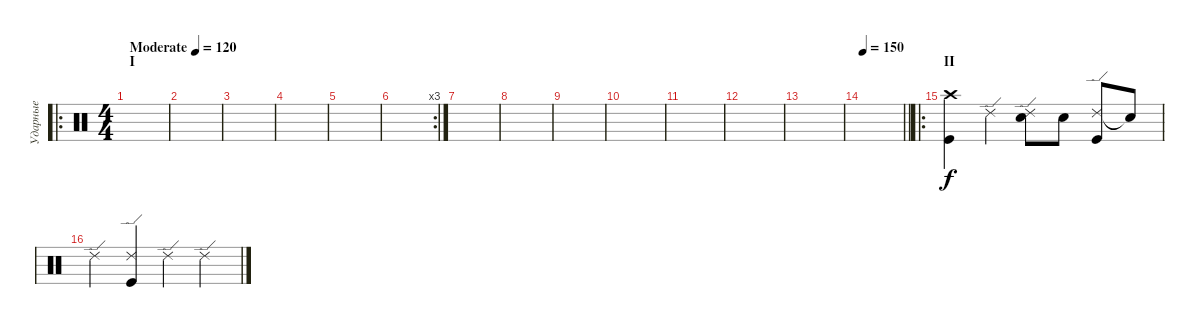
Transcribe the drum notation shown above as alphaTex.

\track ("Ударные" "Ударные") {instrument percussion}
\staff {score}
\articulation defaults
\ro
\ts (4 4)
\section ("" "I")
\tempo (120 "Moderate")
\clef neutral
\ks c
|
|
|
|
|
\rc 3
|
|
|
|
|
|
|
|
\tempo 150
\barLineRight lightlight
|
\ro
\section ("" "II")
("Crash high (hit)" "Kick (hit)").4 "Ride (edge) 2".4 ("Ride (edge) 2" "Snare (hit) 2").8 "Snare (hit) 2".8 ("Ride (edge) 2" "Kick (hit)").8 "Snare (hit)"{t}.8 |
"Ride (edge) 2".4 ("Ride (edge) 2" "Kick (hit)").4 "Ride (edge) 2".4 "Ride (edge) 2".4
